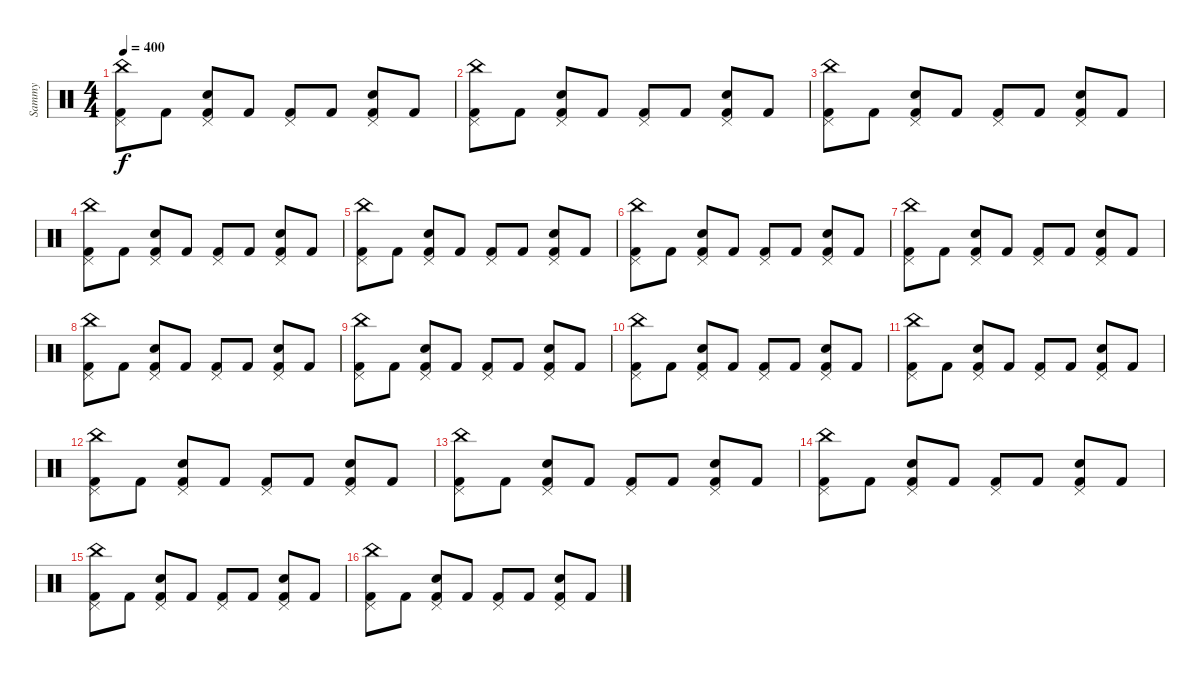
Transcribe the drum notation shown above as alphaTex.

\track ("Sammy" "Sammy") {instrument percussion}
\staff {score}
\articulation defaults
\ts (4 4)
\tempo 400
\clef neutral
\ks c
("China (hit)" "Pedal Hi-Hat (hit)" "Kick (hit) 2").8{dy f} "Kick (hit) 2".8 ("Electric Snare (hit)" "Pedal Hi-Hat (hit)" "Kick (hit) 2").8 "Kick (hit) 2".8 ("Pedal Hi-Hat (hit)" "Kick (hit) 2").8 "Kick (hit) 2".8 ("Electric Snare (hit)" "Pedal Hi-Hat (hit)" "Kick (hit) 2").8 "Kick (hit) 2".8 |
("China (hit)" "Pedal Hi-Hat (hit)" "Kick (hit) 2").8 "Kick (hit) 2".8 ("Electric Snare (hit)" "Pedal Hi-Hat (hit)" "Kick (hit) 2").8 "Kick (hit) 2".8 ("Pedal Hi-Hat (hit)" "Kick (hit) 2").8 "Kick (hit) 2".8 ("Electric Snare (hit)" "Pedal Hi-Hat (hit)" "Kick (hit) 2").8 "Kick (hit) 2".8 |
("China (hit)" "Pedal Hi-Hat (hit)" "Kick (hit) 2").8 "Kick (hit) 2".8 ("Electric Snare (hit)" "Pedal Hi-Hat (hit)" "Kick (hit) 2").8 "Kick (hit) 2".8 ("Pedal Hi-Hat (hit)" "Kick (hit) 2").8 "Kick (hit) 2".8 ("Electric Snare (hit)" "Pedal Hi-Hat (hit)" "Kick (hit) 2").8 "Kick (hit) 2".8 |
("China (hit)" "Pedal Hi-Hat (hit)" "Kick (hit) 2").8 "Kick (hit) 2".8 ("Electric Snare (hit)" "Pedal Hi-Hat (hit)" "Kick (hit) 2").8 "Kick (hit) 2".8 ("Pedal Hi-Hat (hit)" "Kick (hit) 2").8 "Kick (hit) 2".8 ("Electric Snare (hit)" "Pedal Hi-Hat (hit)" "Kick (hit) 2").8 "Kick (hit) 2".8 |
("China (hit)" "Pedal Hi-Hat (hit)" "Kick (hit) 2").8 "Kick (hit) 2".8 ("Electric Snare (hit)" "Pedal Hi-Hat (hit)" "Kick (hit) 2").8 "Kick (hit) 2".8 ("Pedal Hi-Hat (hit)" "Kick (hit) 2").8 "Kick (hit) 2".8 ("Electric Snare (hit)" "Pedal Hi-Hat (hit)" "Kick (hit) 2").8 "Kick (hit) 2".8 |
("China (hit)" "Pedal Hi-Hat (hit)" "Kick (hit) 2").8 "Kick (hit) 2".8 ("Electric Snare (hit)" "Pedal Hi-Hat (hit)" "Kick (hit) 2").8 "Kick (hit) 2".8 ("Pedal Hi-Hat (hit)" "Kick (hit) 2").8 "Kick (hit) 2".8 ("Electric Snare (hit)" "Pedal Hi-Hat (hit)" "Kick (hit) 2").8 "Kick (hit) 2".8 |
("China (hit)" "Pedal Hi-Hat (hit)" "Kick (hit) 2").8 "Kick (hit) 2".8 ("Electric Snare (hit)" "Pedal Hi-Hat (hit)" "Kick (hit) 2").8 "Kick (hit) 2".8 ("Pedal Hi-Hat (hit)" "Kick (hit) 2").8 "Kick (hit) 2".8 ("Electric Snare (hit)" "Pedal Hi-Hat (hit)" "Kick (hit) 2").8 "Kick (hit) 2".8 |
("China (hit)" "Pedal Hi-Hat (hit)" "Kick (hit) 2").8 "Kick (hit) 2".8 ("Electric Snare (hit)" "Pedal Hi-Hat (hit)" "Kick (hit) 2").8 "Kick (hit) 2".8 ("Pedal Hi-Hat (hit)" "Kick (hit) 2").8 "Kick (hit) 2".8 ("Electric Snare (hit)" "Pedal Hi-Hat (hit)" "Kick (hit) 2").8 "Kick (hit) 2".8 |
("China (hit)" "Pedal Hi-Hat (hit)" "Kick (hit) 2").8 "Kick (hit) 2".8 ("Electric Snare (hit)" "Pedal Hi-Hat (hit)" "Kick (hit) 2").8 "Kick (hit) 2".8 ("Pedal Hi-Hat (hit)" "Kick (hit) 2").8 "Kick (hit) 2".8 ("Electric Snare (hit)" "Pedal Hi-Hat (hit)" "Kick (hit) 2").8 "Kick (hit) 2".8 |
("China (hit)" "Pedal Hi-Hat (hit)" "Kick (hit) 2").8 "Kick (hit) 2".8 ("Electric Snare (hit)" "Pedal Hi-Hat (hit)" "Kick (hit) 2").8 "Kick (hit) 2".8 ("Pedal Hi-Hat (hit)" "Kick (hit) 2").8 "Kick (hit) 2".8 ("Electric Snare (hit)" "Pedal Hi-Hat (hit)" "Kick (hit) 2").8 "Kick (hit) 2".8 |
("China (hit)" "Pedal Hi-Hat (hit)" "Kick (hit) 2").8 "Kick (hit) 2".8 ("Electric Snare (hit)" "Pedal Hi-Hat (hit)" "Kick (hit) 2").8 "Kick (hit) 2".8 ("Pedal Hi-Hat (hit)" "Kick (hit) 2").8 "Kick (hit) 2".8 ("Electric Snare (hit)" "Pedal Hi-Hat (hit)" "Kick (hit) 2").8 "Kick (hit) 2".8 |
("China (hit)" "Pedal Hi-Hat (hit)" "Kick (hit) 2").8 "Kick (hit) 2".8 ("Electric Snare (hit)" "Pedal Hi-Hat (hit)" "Kick (hit) 2").8 "Kick (hit) 2".8 ("Pedal Hi-Hat (hit)" "Kick (hit) 2").8 "Kick (hit) 2".8 ("Electric Snare (hit)" "Pedal Hi-Hat (hit)" "Kick (hit) 2").8 "Kick (hit) 2".8 |
("China (hit)" "Pedal Hi-Hat (hit)" "Kick (hit) 2").8 "Kick (hit) 2".8 ("Electric Snare (hit)" "Pedal Hi-Hat (hit)" "Kick (hit) 2").8 "Kick (hit) 2".8 ("Pedal Hi-Hat (hit)" "Kick (hit) 2").8 "Kick (hit) 2".8 ("Electric Snare (hit)" "Pedal Hi-Hat (hit)" "Kick (hit) 2").8 "Kick (hit) 2".8 |
("China (hit)" "Pedal Hi-Hat (hit)" "Kick (hit) 2").8 "Kick (hit) 2".8 ("Electric Snare (hit)" "Pedal Hi-Hat (hit)" "Kick (hit) 2").8 "Kick (hit) 2".8 ("Pedal Hi-Hat (hit)" "Kick (hit) 2").8 "Kick (hit) 2".8 ("Electric Snare (hit)" "Pedal Hi-Hat (hit)" "Kick (hit) 2").8 "Kick (hit) 2".8 |
("China (hit)" "Pedal Hi-Hat (hit)" "Kick (hit) 2").8 "Kick (hit) 2".8 ("Electric Snare (hit)" "Pedal Hi-Hat (hit)" "Kick (hit) 2").8 "Kick (hit) 2".8 ("Pedal Hi-Hat (hit)" "Kick (hit) 2").8 "Kick (hit) 2".8 ("Electric Snare (hit)" "Pedal Hi-Hat (hit)" "Kick (hit) 2").8 "Kick (hit) 2".8 |
("China (hit)" "Pedal Hi-Hat (hit)" "Kick (hit) 2").8 "Kick (hit) 2".8 ("Electric Snare (hit)" "Pedal Hi-Hat (hit)" "Kick (hit) 2").8 "Kick (hit) 2".8 ("Pedal Hi-Hat (hit)" "Kick (hit) 2").8 "Kick (hit) 2".8 ("Electric Snare (hit)" "Pedal Hi-Hat (hit)" "Kick (hit) 2").8 "Kick (hit) 2".8
